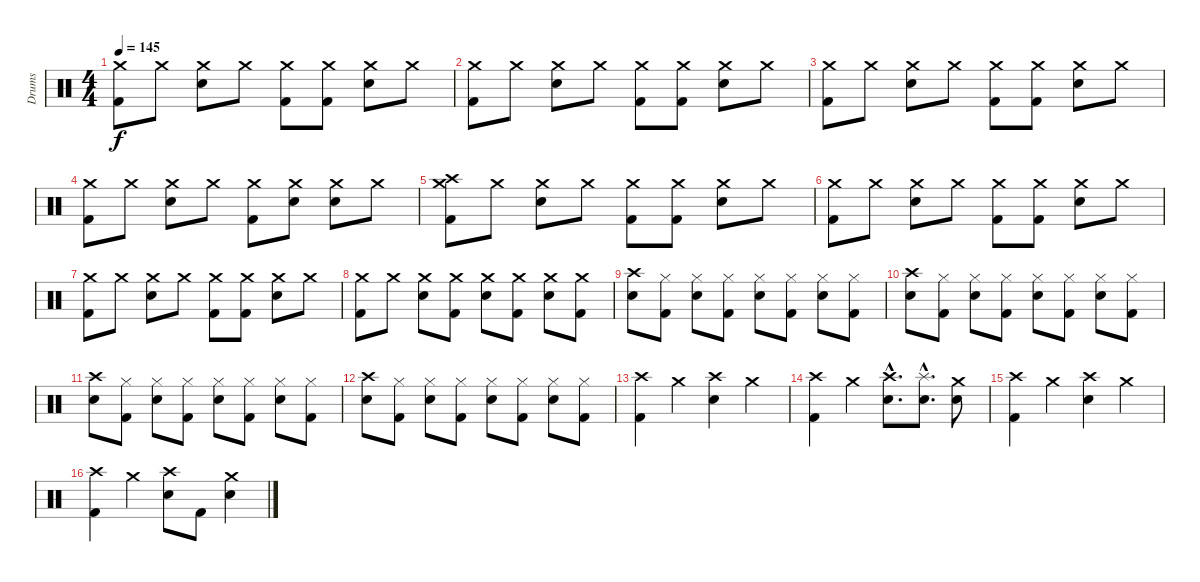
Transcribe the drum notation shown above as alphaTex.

\track ("Drums" "Drums") {instrument percussion}
\staff {score}
\articulation defaults
\ts (4 4)
\tempo 145
\clef neutral
\ks c
("Crash medium (hit)" "Kick (hit) 2").8{dy f} "Crash medium (hit)".8 ("Crash medium (hit)" "Snare (hit) 2").8 "Crash medium (hit)".8 ("Crash medium (hit)" "Kick (hit) 2").8 ("Crash medium (hit)" "Kick (hit) 2").8 ("Crash medium (hit)" "Snare (hit) 2").8 "Crash medium (hit)".8 |
("Crash medium (hit)" "Kick (hit) 2").8 "Crash medium (hit)".8 ("Crash medium (hit)" "Snare (hit) 2").8 "Crash medium (hit)".8 ("Crash medium (hit)" "Kick (hit) 2").8 ("Crash medium (hit)" "Kick (hit) 2").8 ("Crash medium (hit)" "Snare (hit) 2").8 "Crash medium (hit)".8 |
("Crash medium (hit)" "Kick (hit) 2").8 "Crash medium (hit)".8 ("Crash medium (hit)" "Snare (hit) 2").8 "Crash medium (hit)".8 ("Crash medium (hit)" "Kick (hit) 2").8 ("Crash medium (hit)" "Kick (hit) 2").8 ("Crash medium (hit)" "Snare (hit) 2").8 "Crash medium (hit)".8 |
("Crash medium (hit)" "Kick (hit) 2").8 "Crash medium (hit)".8 ("Crash medium (hit)" "Snare (hit) 2").8 "Crash medium (hit)".8 ("Crash medium (hit)" "Kick (hit) 2").8 ("Crash medium (hit)" "Snare (hit) 2").8 ("Crash medium (hit)" "Snare (hit) 2").8 "Crash medium (hit)".8 |
("Crash medium (hit)" "Crash high (hit)" "Kick (hit) 2").8 "Crash medium (hit)".8 ("Crash medium (hit)" "Snare (hit) 2").8 "Crash medium (hit)".8 ("Crash medium (hit)" "Kick (hit) 2").8 ("Crash medium (hit)" "Kick (hit) 2").8 ("Crash medium (hit)" "Snare (hit) 2").8 "Crash medium (hit)".8 |
("Crash medium (hit)" "Kick (hit) 2").8 "Crash medium (hit)".8 ("Crash medium (hit)" "Snare (hit) 2").8 "Crash medium (hit)".8 ("Crash medium (hit)" "Kick (hit) 2").8 ("Crash medium (hit)" "Kick (hit) 2").8 ("Crash medium (hit)" "Snare (hit) 2").8 "Crash medium (hit)".8 |
("Crash medium (hit)" "Kick (hit) 2").8 "Crash medium (hit)".8 ("Crash medium (hit)" "Snare (hit) 2").8 "Crash medium (hit)".8 ("Crash medium (hit)" "Kick (hit) 2").8 ("Crash medium (hit)" "Kick (hit) 2").8 ("Crash medium (hit)" "Snare (hit) 2").8 "Crash medium (hit)".8 |
("Crash medium (hit)" "Kick (hit) 2").8 "Crash medium (hit)".8 ("Crash medium (hit)" "Snare (hit) 2").8 ("Crash medium (hit)" "Kick (hit) 2").8 ("Crash medium (hit)" "Snare (hit) 2").8 ("Crash medium (hit)" "Kick (hit) 2").8 ("Crash medium (hit)" "Snare (hit) 2").8 ("Crash medium (hit)" "Kick (hit) 2").8 |
("Crash high (hit)" "Snare (hit) 2").8 ("Hi-Hat (closed)" "Kick (hit) 2").8 ("Hi-Hat (closed)" "Snare (hit) 2").8 ("Hi-Hat (closed)" "Kick (hit) 2").8 ("Hi-Hat (closed)" "Snare (hit) 2").8 ("Hi-Hat (closed)" "Kick (hit) 2").8 ("Hi-Hat (closed)" "Snare (hit) 2").8 ("Hi-Hat (closed)" "Kick (hit) 2").8 |
("Crash high (hit)" "Snare (hit) 2").8 ("Hi-Hat (closed)" "Kick (hit) 2").8 ("Hi-Hat (closed)" "Snare (hit) 2").8 ("Hi-Hat (closed)" "Kick (hit) 2").8 ("Hi-Hat (closed)" "Snare (hit) 2").8 ("Hi-Hat (closed)" "Kick (hit) 2").8 ("Hi-Hat (closed)" "Snare (hit) 2").8 ("Hi-Hat (closed)" "Kick (hit) 2").8 |
("Crash high (hit)" "Snare (hit) 2").8 ("Hi-Hat (closed)" "Kick (hit) 2").8 ("Hi-Hat (closed)" "Snare (hit) 2").8 ("Hi-Hat (closed)" "Kick (hit) 2").8 ("Hi-Hat (closed)" "Snare (hit) 2").8 ("Hi-Hat (closed)" "Kick (hit) 2").8 ("Hi-Hat (closed)" "Snare (hit) 2").8 ("Hi-Hat (closed)" "Kick (hit) 2").8 |
("Crash high (hit)" "Snare (hit) 2").8 ("Hi-Hat (closed)" "Kick (hit) 2").8 ("Hi-Hat (closed)" "Snare (hit) 2").8 ("Hi-Hat (closed)" "Kick (hit) 2").8 ("Hi-Hat (closed)" "Snare (hit) 2").8 ("Hi-Hat (closed)" "Kick (hit) 2").8 ("Hi-Hat (closed)" "Snare (hit) 2").8 ("Hi-Hat (closed)" "Kick (hit) 2").8 |
("Crash high (hit)" "Kick (hit) 2").4 "Crash medium (hit)".4 ("Crash high (hit)" "Snare (hit) 2").4 "Crash medium (hit)".4 |
("Crash high (hit)" "Kick (hit) 2").4 "Crash medium (hit)".4 ("Crash high (hit)"{hac} "Snare (hit) 2"{hac}).8{d} ("Splash (hit)"{hac} "Snare (hit) 2"{hac}).8{d} ("Crash medium (hit)" "Snare (hit) 2").8 |
("Crash high (hit)" "Kick (hit) 2").4 "Crash medium (hit)".4 ("Crash high (hit)" "Snare (hit) 2").4 "Crash medium (hit)".4 |
("Crash high (hit)" "Kick (hit) 2").4 "Crash medium (hit)".4 ("Crash high (hit)" "Snare (hit) 2").8 "Kick (hit) 2".8 ("Crash medium (hit)" "Snare (hit) 2").4
